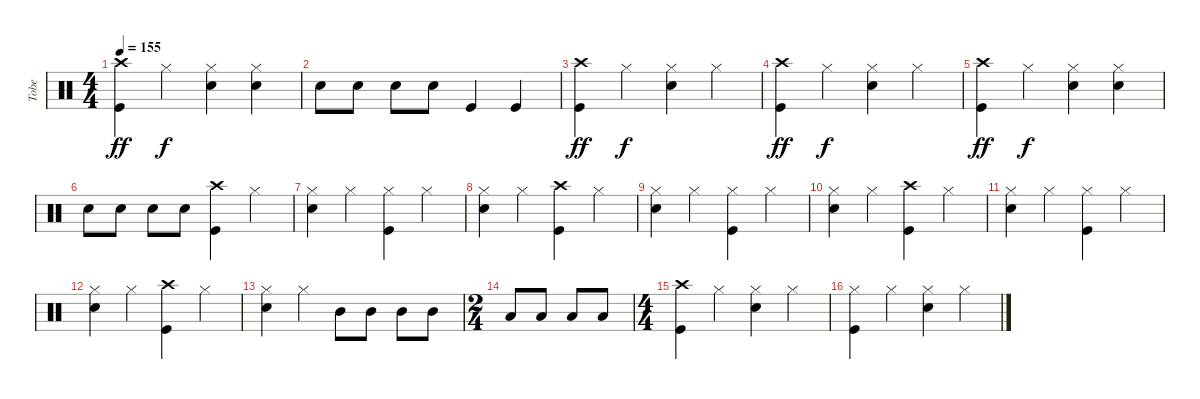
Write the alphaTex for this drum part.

\track ("Tobe" "Tobe") {instrument percussion}
\staff {score}
\articulation defaults
\ts (4 4)
\tempo 155
\clef neutral
\ks c
("Crash high (hit)" "Kick (hit)").4{dy ff} "Hi-Hat (closed)".4{dy f} ("Hi-Hat (closed)" "Electric Snare (hit)").4 ("Hi-Hat (closed)" "Electric Snare (hit)").4 |
"Electric Snare (hit)".8 "Electric Snare (hit)".8 "Electric Snare (hit)".8 "Electric Snare (hit)".8 "Kick (hit)".4 "Kick (hit)".4 |
("Crash high (hit)" "Kick (hit)").4{dy ff} "Hi-Hat (closed)".4{dy f} ("Hi-Hat (closed)" "Electric Snare (hit)").4 "Hi-Hat (closed)".4 |
("Crash high (hit)" "Kick (hit)").4{dy ff} "Hi-Hat (closed)".4{dy f} ("Hi-Hat (closed)" "Electric Snare (hit)").4 "Hi-Hat (closed)".4 |
("Crash high (hit)" "Kick (hit)").4{dy ff} "Hi-Hat (closed)".4{dy f} ("Hi-Hat (closed)" "Electric Snare (hit)").4 ("Hi-Hat (closed)" "Electric Snare (hit)").4 |
"Electric Snare (hit)".8 "Electric Snare (hit)".8 "Electric Snare (hit)".8 "Electric Snare (hit)".8 ("Crash high (hit)" "Kick (hit)").4 "Hi-Hat (closed)".4 |
("Hi-Hat (closed)" "Electric Snare (hit)").4 "Hi-Hat (closed)".4 ("Hi-Hat (closed)" "Kick (hit)").4 "Hi-Hat (closed)".4 |
("Hi-Hat (closed)" "Electric Snare (hit)").4 "Hi-Hat (closed)".4 ("Crash high (hit)" "Kick (hit)").4 "Hi-Hat (closed)".4 |
("Hi-Hat (closed)" "Electric Snare (hit)").4 "Hi-Hat (closed)".4 ("Hi-Hat (closed)" "Kick (hit)").4 "Hi-Hat (closed)".4 |
("Hi-Hat (closed)" "Electric Snare (hit)").4 "Hi-Hat (closed)".4 ("Crash high (hit)" "Kick (hit)").4 "Hi-Hat (closed)".4 |
("Hi-Hat (closed)" "Electric Snare (hit)").4 "Hi-Hat (closed)".4 ("Hi-Hat (closed)" "Kick (hit)").4 "Hi-Hat (closed)".4 |
("Hi-Hat (closed)" "Electric Snare (hit)").4 "Hi-Hat (closed)".4 ("Crash high (hit)" "Kick (hit)").4 "Hi-Hat (closed)".4 |
("Hi-Hat (closed)" "Electric Snare (hit)").4 "Hi-Hat (closed)".4 "Mid Tom (hit)".8 "Mid Tom (hit)".8 "Mid Tom (hit)".8 "Mid Tom (hit)".8 |
\ts (2 4)
"Low Tom (hit)".8 "Low Tom (hit)".8 "Low Tom (hit)".8 "Low Tom (hit)".8 |
\ts (4 4)
("Crash high (hit)" "Kick (hit)").4 "Hi-Hat (closed)".4 ("Hi-Hat (closed)" "Electric Snare (hit)").4 "Hi-Hat (closed)".4 |
("Hi-Hat (closed)" "Kick (hit)").4 "Hi-Hat (closed)".4 ("Hi-Hat (closed)" "Electric Snare (hit)").4 "Hi-Hat (closed)".4
